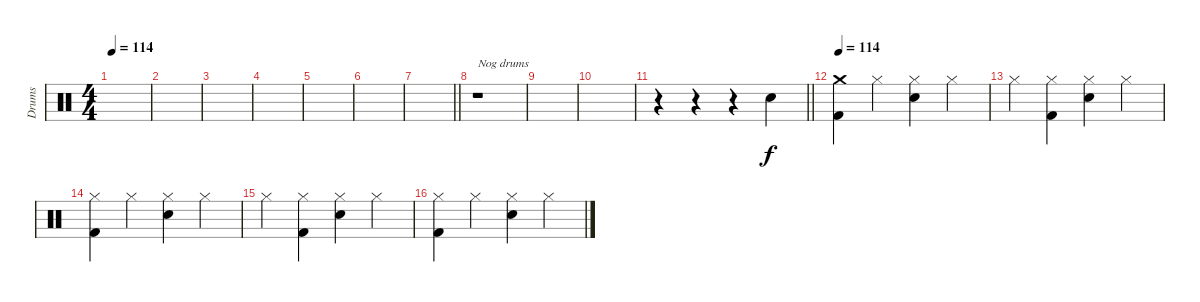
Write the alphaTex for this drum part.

\track ("Drums" "Drums") {instrument percussion}
\staff {score}
\articulation defaults
\ts (4 4)
\tempo 114
\clef neutral
\ks c
|
|
|
|
|
|
\barLineRight lightlight
|
\section ("" "")
r.1{txt "Nog drums"} |
|
|
\barLineRight lightlight
r.4 r.4 r.4 "Snare (hit) 2".4 |
\section ("" "")
\tempo 114
("Crash medium (hit)" "Kick (hit) 2").4 "Hi-Hat (closed)".4 ("Hi-Hat (closed)" "Snare (hit) 2").4 "Hi-Hat (closed)".4 |
"Hi-Hat (closed)".4 ("Hi-Hat (closed)" "Kick (hit) 2").4 ("Hi-Hat (closed)" "Snare (hit) 2").4 "Hi-Hat (closed)".4 |
("Hi-Hat (closed)" "Kick (hit) 2").4 "Hi-Hat (closed)".4 ("Hi-Hat (closed)" "Snare (hit) 2").4 "Hi-Hat (closed)".4 |
"Hi-Hat (closed)".4 ("Hi-Hat (closed)" "Kick (hit) 2").4 ("Hi-Hat (closed)" "Snare (hit) 2").4 "Hi-Hat (closed)".4 |
("Hi-Hat (closed)" "Kick (hit) 2").4 "Hi-Hat (closed)".4 ("Hi-Hat (closed)" "Snare (hit) 2").4 "Hi-Hat (closed)".4
